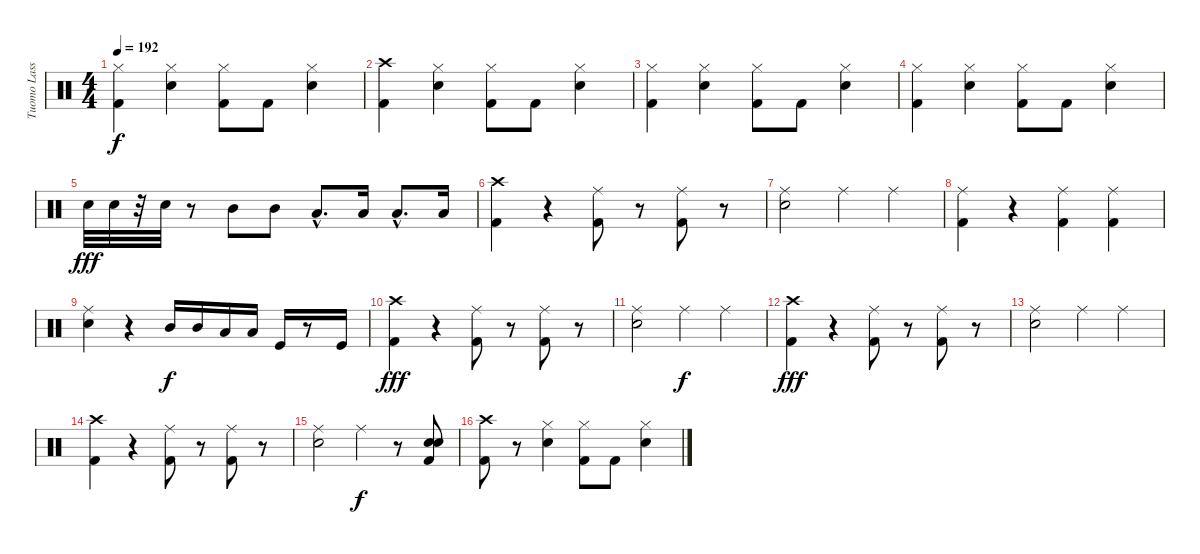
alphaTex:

\track ("Tuomo Lassilla" "Tuomo Lass") {instrument percussion}
\staff {score}
\articulation defaults
\ts (4 4)
\tempo 192
\clef neutral
\ks c
("Kick (hit) 2" "Hi-Hat (closed)").4{dy f} ("Electric Snare (hit)" "Hi-Hat (closed)").4 ("Kick (hit) 2" "Hi-Hat (closed)").8 "Kick (hit) 2".8 ("Electric Snare (hit)" "Hi-Hat (closed)").4 |
("Kick (hit) 2" "Crash high (hit)").4 ("Electric Snare (hit)" "Hi-Hat (closed)").4 ("Kick (hit) 2" "Hi-Hat (closed)").8 "Kick (hit) 2".8 ("Electric Snare (hit)" "Hi-Hat (closed)").4 |
("Kick (hit) 2" "Hi-Hat (closed)").4 ("Electric Snare (hit)" "Hi-Hat (closed)").4 ("Kick (hit) 2" "Hi-Hat (closed)").8 "Kick (hit) 2".8 ("Electric Snare (hit)" "Hi-Hat (closed)").4 |
("Kick (hit) 2" "Hi-Hat (closed)").4 ("Electric Snare (hit)" "Hi-Hat (closed)").4 ("Kick (hit) 2" "Hi-Hat (closed)").8 "Kick (hit) 2".8 ("Electric Snare (hit)" "Hi-Hat (closed)").4 |
"Electric Snare (hit)".32{dy fff} "Electric Snare (hit)".32 r.32 "Electric Snare (hit)".32 r.8 "Mid Tom (hit)".8 "Mid Tom (hit)".8 "Low Tom (hit)"{hac}.8{d} "Low Tom (hit)".16 "Low Floor Tom (hit)"{hac}.8{d} "Low Floor Tom (hit)".16 |
("Kick (hit) 2" "Crash high (hit)").4 r.4 ("Kick (hit) 2" "Ride (middle)").8 r.8 ("Kick (hit) 2" "Ride (middle)").8 r.8 |
("Electric Snare (hit)" "Ride (middle)").2 "Ride (middle)".4 "Ride (middle)".4 |
("Kick (hit) 2" "Ride (middle)").4 r.4 ("Kick (hit) 2" "Ride (middle)").4 ("Kick (hit) 2" "Ride (middle)").4 |
("Electric Snare (hit)" "Ride (middle)").4 r.4 "Mid Tom (hit)".16{dy f} "Mid Tom (hit)".16 "Low Tom (hit)".16 "Low Tom (hit)".16 "Kick (hit)".16 r.8 "Kick (hit)".16 |
("Kick (hit) 2" "Crash high (hit)").4{dy fff} r.4 ("Kick (hit) 2" "Ride (middle)").8 r.8 ("Kick (hit) 2" "Ride (middle)").8 r.8 |
("Electric Snare (hit)" "Ride (middle)").2 "Ride (middle)".4{dy f} "Ride (middle)".4 |
("Kick (hit) 2" "Crash high (hit)").4{dy fff} r.4 ("Kick (hit) 2" "Ride (middle)").8 r.8 ("Kick (hit) 2" "Ride (middle)").8 r.8 |
("Electric Snare (hit)" "Ride (middle)").2 "Ride (middle)".4 "Ride (middle)".4 |
("Kick (hit) 2" "Crash high (hit)").4 r.4 ("Kick (hit) 2" "Ride (middle)").8 r.8 ("Kick (hit) 2" "Ride (middle)").8 r.8 |
("Electric Snare (hit)" "Ride (middle)").2 "Ride (middle)".4{dy f} r.8 ("Electric Snare (hit)" "Electric Snare (hit)" "Kick (hit) 2").8 |
("Kick (hit) 2" "Crash high (hit)").8 r.8 ("Electric Snare (hit)" "Hi-Hat (closed)").4 ("Kick (hit) 2" "Hi-Hat (closed)").8 "Kick (hit) 2".8 ("Electric Snare (hit)" "Hi-Hat (closed)").4
